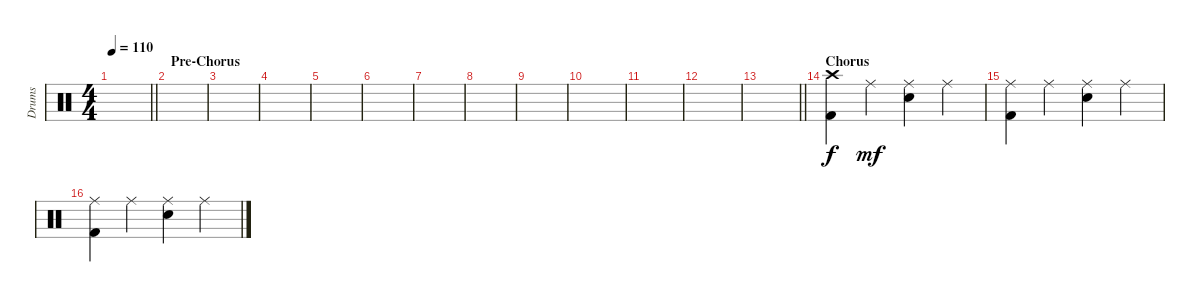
\track ("Drums" "Drums") {instrument percussion}
\staff {score}
\articulation defaults
\ts (4 4)
\tempo 110
\clef neutral
\barLineRight lightlight
\ks c
|
\section ("" "Pre-Chorus")
|
|
|
|
|
|
|
|
|
|
|
\barLineRight lightlight
|
\section ("" "Chorus")
("Crash high (hit)" "Kick (hit) 2").4 "Ride (middle)".4{dy mf} ("Ride (middle)" "Snare (hit) 2").4 "Ride (middle)".4 |
("Ride (middle)" "Kick (hit) 2").4 "Ride (middle)".4 ("Ride (middle)" "Snare (hit) 2").4 "Ride (middle)".4 |
("Ride (middle)" "Kick (hit) 2").4 "Ride (middle)".4 ("Ride (middle)" "Snare (hit) 2").4 "Ride (middle)".4
